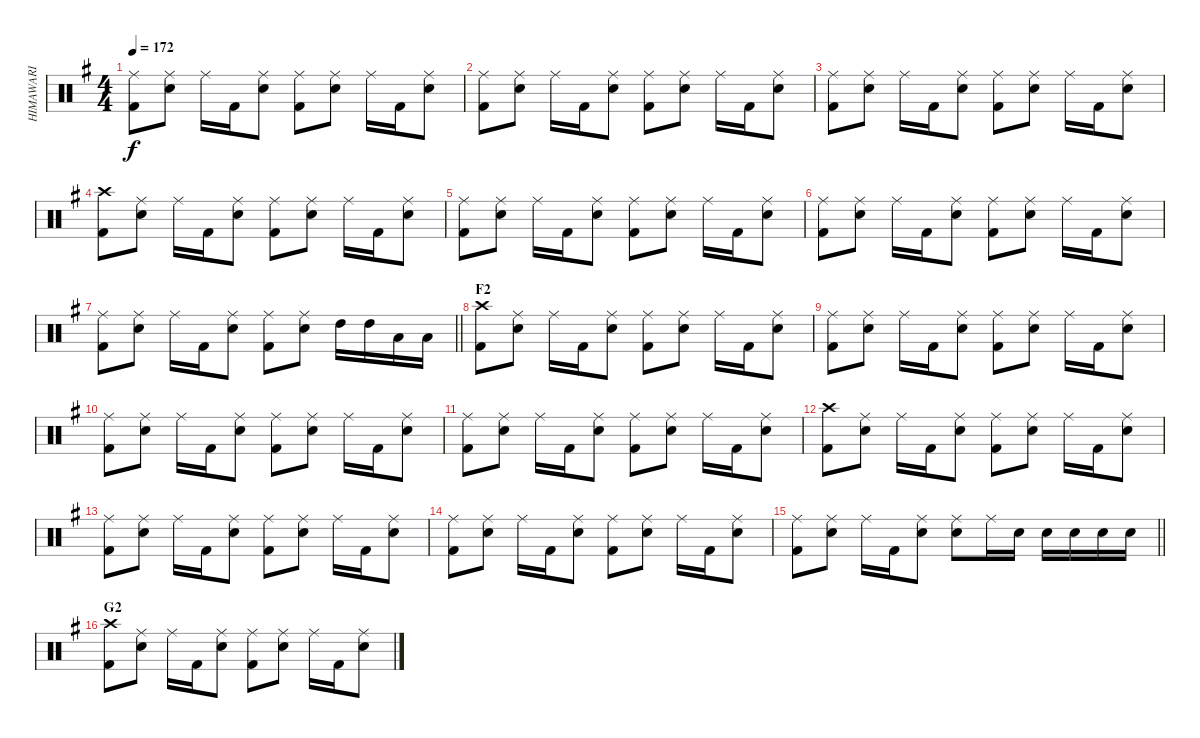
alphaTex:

\track ("HIMAWARI" "HIMAWARI") {instrument percussion}
\staff {score}
\articulation defaults
\ts (4 4)
\tempo 172
\clef neutral
\ks g
("Ride (middle)" "Kick (hit) 2").8{dy f} ("Ride (middle)" "Snare (hit) 2").8 "Ride (middle)".16 "Kick (hit) 2".16 ("Ride (middle)" "Snare (hit) 2").8 ("Ride (middle)" "Kick (hit) 2").8 ("Ride (middle)" "Snare (hit) 2").8 "Ride (middle)".16 "Kick (hit) 2".16 ("Ride (middle)" "Snare (hit) 2").8 |
("Ride (middle)" "Kick (hit) 2").8 ("Ride (middle)" "Snare (hit) 2").8 "Ride (middle)".16 "Kick (hit) 2".16 ("Ride (middle)" "Snare (hit) 2").8 ("Ride (middle)" "Kick (hit) 2").8 ("Ride (middle)" "Snare (hit) 2").8 "Ride (middle)".16 "Kick (hit) 2".16 ("Ride (middle)" "Snare (hit) 2").8 |
("Ride (middle)" "Kick (hit) 2").8 ("Ride (middle)" "Snare (hit) 2").8 "Ride (middle)".16 "Kick (hit) 2".16 ("Ride (middle)" "Snare (hit) 2").8 ("Ride (middle)" "Kick (hit) 2").8 ("Ride (middle)" "Snare (hit) 2").8 "Ride (middle)".16 "Kick (hit) 2".16 ("Ride (middle)" "Snare (hit) 2").8 |
("Crash high (hit)" "Kick (hit) 2").8 ("Ride (middle)" "Snare (hit) 2").8 "Ride (middle)".16 "Kick (hit) 2".16 ("Ride (middle)" "Snare (hit) 2").8 ("Ride (middle)" "Kick (hit) 2").8 ("Ride (middle)" "Snare (hit) 2").8 "Ride (middle)".16 "Kick (hit) 2".16 ("Ride (middle)" "Snare (hit) 2").8 |
("Ride (middle)" "Kick (hit) 2").8 ("Ride (middle)" "Snare (hit) 2").8 "Ride (middle)".16 "Kick (hit) 2".16 ("Ride (middle)" "Snare (hit) 2").8 ("Ride (middle)" "Kick (hit) 2").8 ("Ride (middle)" "Snare (hit) 2").8 "Ride (middle)".16 "Kick (hit) 2".16 ("Ride (middle)" "Snare (hit) 2").8 |
("Ride (middle)" "Kick (hit) 2").8 ("Ride (middle)" "Snare (hit) 2").8 "Ride (middle)".16 "Kick (hit) 2".16 ("Ride (middle)" "Snare (hit) 2").8 ("Ride (middle)" "Kick (hit) 2").8 ("Ride (middle)" "Snare (hit) 2").8 "Ride (middle)".16 "Kick (hit) 2".16 ("Ride (middle)" "Snare (hit) 2").8 |
\barLineRight lightlight
("Ride (middle)" "Kick (hit) 2").8 ("Ride (middle)" "Snare (hit) 2").8 "Ride (middle)".16 "Kick (hit) 2".16 ("Ride (middle)" "Snare (hit) 2").8 ("Ride (middle)" "Kick (hit) 2").8 ("Ride (middle)" "Snare (hit) 2").8 "High Tom (hit)".16 "High Tom (hit)".16 "Low Tom (hit)".16 "Low Tom (hit)".16 |
\section ("" "F2")
("Crash high (hit)" "Kick (hit) 2").8 ("Ride (middle)" "Snare (hit) 2").8 "Ride (middle)".16 "Kick (hit) 2".16 ("Ride (middle)" "Snare (hit) 2").8 ("Ride (middle)" "Kick (hit) 2").8 ("Ride (middle)" "Snare (hit) 2").8 "Ride (middle)".16 "Kick (hit) 2".16 ("Ride (middle)" "Snare (hit) 2").8 |
("Ride (middle)" "Kick (hit) 2").8 ("Ride (middle)" "Snare (hit) 2").8 "Ride (middle)".16 "Kick (hit) 2".16 ("Ride (middle)" "Snare (hit) 2").8 ("Ride (middle)" "Kick (hit) 2").8 ("Ride (middle)" "Snare (hit) 2").8 "Ride (middle)".16 "Kick (hit) 2".16 ("Ride (middle)" "Snare (hit) 2").8 |
("Ride (middle)" "Kick (hit) 2").8 ("Ride (middle)" "Snare (hit) 2").8 "Ride (middle)".16 "Kick (hit) 2".16 ("Ride (middle)" "Snare (hit) 2").8 ("Ride (middle)" "Kick (hit) 2").8 ("Ride (middle)" "Snare (hit) 2").8 "Ride (middle)".16 "Kick (hit) 2".16 ("Ride (middle)" "Snare (hit) 2").8 |
("Ride (middle)" "Kick (hit) 2").8 ("Ride (middle)" "Snare (hit) 2").8 "Ride (middle)".16 "Kick (hit) 2".16 ("Ride (middle)" "Snare (hit) 2").8 ("Ride (middle)" "Kick (hit) 2").8 ("Ride (middle)" "Snare (hit) 2").8 "Ride (middle)".16 "Kick (hit) 2".16 ("Ride (middle)" "Snare (hit) 2").8 |
("Crash high (hit)" "Kick (hit) 2").8 ("Ride (middle)" "Snare (hit) 2").8 "Ride (middle)".16 "Kick (hit) 2".16 ("Ride (middle)" "Snare (hit) 2").8 ("Ride (middle)" "Kick (hit) 2").8 ("Ride (middle)" "Snare (hit) 2").8 "Ride (middle)".16 "Kick (hit) 2".16 ("Ride (middle)" "Snare (hit) 2").8 |
("Ride (middle)" "Kick (hit) 2").8 ("Ride (middle)" "Snare (hit) 2").8 "Ride (middle)".16 "Kick (hit) 2".16 ("Ride (middle)" "Snare (hit) 2").8 ("Ride (middle)" "Kick (hit) 2").8 ("Ride (middle)" "Snare (hit) 2").8 "Ride (middle)".16 "Kick (hit) 2".16 ("Ride (middle)" "Snare (hit) 2").8 |
("Ride (middle)" "Kick (hit) 2").8 ("Ride (middle)" "Snare (hit) 2").8 "Ride (middle)".16 "Kick (hit) 2".16 ("Ride (middle)" "Snare (hit) 2").8 ("Ride (middle)" "Kick (hit) 2").8 ("Ride (middle)" "Snare (hit) 2").8 "Ride (middle)".16 "Kick (hit) 2".16 ("Ride (middle)" "Snare (hit) 2").8 |
\barLineRight lightlight
("Ride (middle)" "Kick (hit) 2").8 ("Ride (middle)" "Snare (hit) 2").8 "Ride (middle)".16 "Kick (hit) 2".16 ("Ride (middle)" "Snare (hit) 2").8 ("Ride (middle)" "Snare (hit) 2").8 "Ride (middle)".16 "Snare (hit) 2".16 "Snare (hit) 2".16 "Snare (hit) 2".16 "Snare (hit) 2".16 "Snare (hit) 2".16 |
\section ("" "G2")
("Crash high (hit)" "Kick (hit) 2").8 ("Ride (middle)" "Snare (hit) 2").8 "Ride (middle)".16 "Kick (hit) 2".16 ("Ride (middle)" "Snare (hit) 2").8 ("Ride (middle)" "Kick (hit) 2").8 ("Ride (middle)" "Snare (hit) 2").8 "Ride (middle)".16 "Kick (hit) 2".16 ("Ride (middle)" "Snare (hit) 2").8
